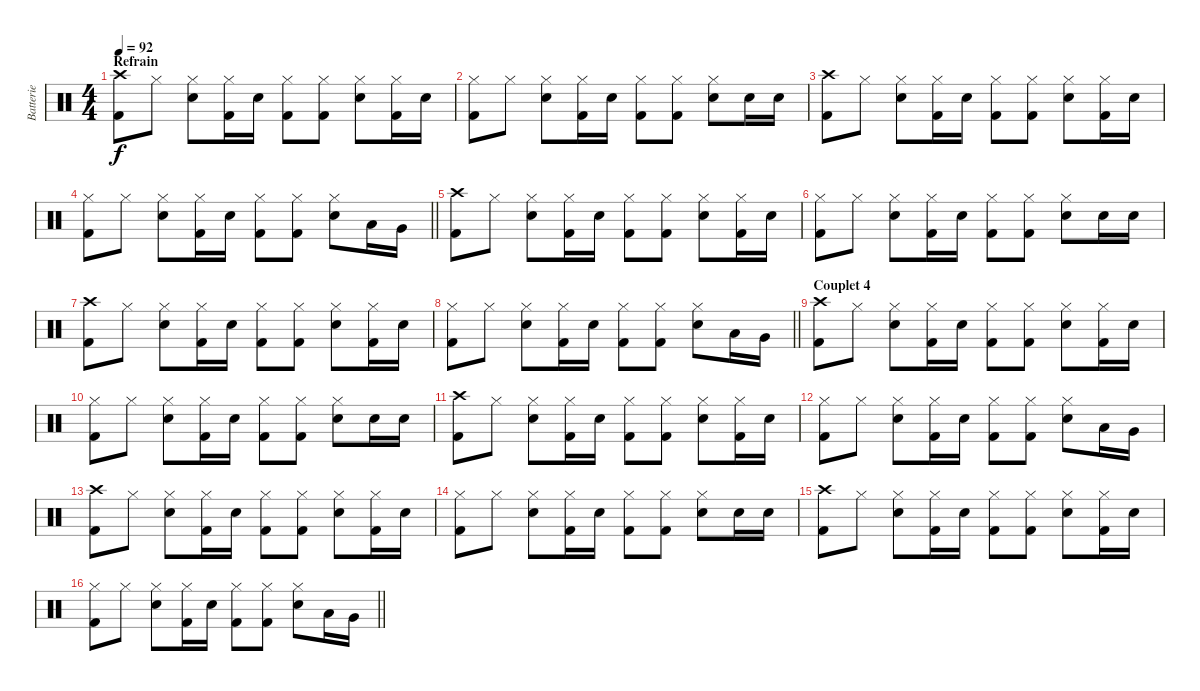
\track ("Batterie" "Batterie") {instrument percussion}
\staff {score}
\articulation defaults
\ts (4 4)
\section ("" "Refrain")
\tempo 92
\clef neutral
\ks c
("Crash high (hit)" "Kick (hit) 2").8{dy f} "Hi-Hat (closed)".8 ("Hi-Hat (closed)" "Electric Snare (hit)").8 ("Hi-Hat (closed)" "Kick (hit) 2").16 "Electric Snare (hit)".16 ("Hi-Hat (closed)" "Kick (hit) 2").8 ("Hi-Hat (closed)" "Kick (hit) 2").8 ("Hi-Hat (closed)" "Electric Snare (hit)").8 ("Hi-Hat (closed)" "Kick (hit) 2").16 "Electric Snare (hit)".16 |
("Hi-Hat (closed)" "Kick (hit) 2").8 "Hi-Hat (closed)".8 ("Hi-Hat (closed)" "Electric Snare (hit)").8 ("Hi-Hat (closed)" "Kick (hit) 2").16 "Electric Snare (hit)".16 ("Hi-Hat (closed)" "Kick (hit) 2").8 ("Hi-Hat (closed)" "Kick (hit) 2").8 ("Hi-Hat (closed)" "Electric Snare (hit)").8 "Electric Snare (hit)".16 "Electric Snare (hit)".16 |
("Crash high (hit)" "Kick (hit) 2").8 "Hi-Hat (closed)".8 ("Hi-Hat (closed)" "Electric Snare (hit)").8 ("Hi-Hat (closed)" "Kick (hit) 2").16 "Electric Snare (hit)".16 ("Hi-Hat (closed)" "Kick (hit) 2").8 ("Hi-Hat (closed)" "Kick (hit) 2").8 ("Hi-Hat (closed)" "Electric Snare (hit)").8 ("Hi-Hat (closed)" "Kick (hit) 2").16 "Electric Snare (hit)".16 |
\barLineRight lightlight
("Hi-Hat (closed)" "Kick (hit) 2").8 "Hi-Hat (closed)".8 ("Hi-Hat (closed)" "Electric Snare (hit)").8 ("Hi-Hat (closed)" "Kick (hit) 2").16 "Electric Snare (hit)".16 ("Hi-Hat (closed)" "Kick (hit) 2").8 ("Hi-Hat (closed)" "Kick (hit) 2").8 ("Hi-Hat (closed)" "Electric Snare (hit)").8 "Low Tom (hit)".16 "Very Low Tom (hit)".16 |
("Crash high (hit)" "Kick (hit) 2").8 "Hi-Hat (closed)".8 ("Hi-Hat (closed)" "Electric Snare (hit)").8 ("Hi-Hat (closed)" "Kick (hit) 2").16 "Electric Snare (hit)".16 ("Hi-Hat (closed)" "Kick (hit) 2").8 ("Hi-Hat (closed)" "Kick (hit) 2").8 ("Hi-Hat (closed)" "Electric Snare (hit)").8 ("Hi-Hat (closed)" "Kick (hit) 2").16 "Electric Snare (hit)".16 |
("Hi-Hat (closed)" "Kick (hit) 2").8 "Hi-Hat (closed)".8 ("Hi-Hat (closed)" "Electric Snare (hit)").8 ("Hi-Hat (closed)" "Kick (hit) 2").16 "Electric Snare (hit)".16 ("Hi-Hat (closed)" "Kick (hit) 2").8 ("Hi-Hat (closed)" "Kick (hit) 2").8 ("Hi-Hat (closed)" "Electric Snare (hit)").8 "Electric Snare (hit)".16 "Electric Snare (hit)".16 |
("Crash high (hit)" "Kick (hit) 2").8 "Hi-Hat (closed)".8 ("Hi-Hat (closed)" "Electric Snare (hit)").8 ("Hi-Hat (closed)" "Kick (hit) 2").16 "Electric Snare (hit)".16 ("Hi-Hat (closed)" "Kick (hit) 2").8 ("Hi-Hat (closed)" "Kick (hit) 2").8 ("Hi-Hat (closed)" "Electric Snare (hit)").8 ("Hi-Hat (closed)" "Kick (hit) 2").16 "Electric Snare (hit)".16 |
\barLineRight lightlight
("Hi-Hat (closed)" "Kick (hit) 2").8 "Hi-Hat (closed)".8 ("Hi-Hat (closed)" "Electric Snare (hit)").8 ("Hi-Hat (closed)" "Kick (hit) 2").16 "Electric Snare (hit)".16 ("Hi-Hat (closed)" "Kick (hit) 2").8 ("Hi-Hat (closed)" "Kick (hit) 2").8 ("Hi-Hat (closed)" "Electric Snare (hit)").8 "Low Tom (hit)".16 "Very Low Tom (hit)".16 |
\section ("" "Couplet 4")
("Crash high (hit)" "Kick (hit) 2").8 "Hi-Hat (closed)".8 ("Hi-Hat (closed)" "Electric Snare (hit)").8 ("Hi-Hat (closed)" "Kick (hit) 2").16 "Electric Snare (hit)".16 ("Hi-Hat (closed)" "Kick (hit) 2").8 ("Hi-Hat (closed)" "Kick (hit) 2").8 ("Hi-Hat (closed)" "Electric Snare (hit)").8 ("Hi-Hat (closed)" "Kick (hit) 2").16 "Electric Snare (hit)".16 |
("Hi-Hat (closed)" "Kick (hit) 2").8 "Hi-Hat (closed)".8 ("Hi-Hat (closed)" "Electric Snare (hit)").8 ("Hi-Hat (closed)" "Kick (hit) 2").16 "Electric Snare (hit)".16 ("Hi-Hat (closed)" "Kick (hit) 2").8 ("Hi-Hat (closed)" "Kick (hit) 2").8 ("Hi-Hat (closed)" "Electric Snare (hit)").8 "Electric Snare (hit)".16 "Electric Snare (hit)".16 |
("Crash high (hit)" "Kick (hit) 2").8 "Hi-Hat (closed)".8 ("Hi-Hat (closed)" "Electric Snare (hit)").8 ("Hi-Hat (closed)" "Kick (hit) 2").16 "Electric Snare (hit)".16 ("Hi-Hat (closed)" "Kick (hit) 2").8 ("Hi-Hat (closed)" "Kick (hit) 2").8 ("Hi-Hat (closed)" "Electric Snare (hit)").8 ("Hi-Hat (closed)" "Kick (hit) 2").16 "Electric Snare (hit)".16 |
("Hi-Hat (closed)" "Kick (hit) 2").8 "Hi-Hat (closed)".8 ("Hi-Hat (closed)" "Electric Snare (hit)").8 ("Hi-Hat (closed)" "Kick (hit) 2").16 "Electric Snare (hit)".16 ("Hi-Hat (closed)" "Kick (hit) 2").8 ("Hi-Hat (closed)" "Kick (hit) 2").8 ("Hi-Hat (closed)" "Electric Snare (hit)").8 "Low Tom (hit)".16 "Very Low Tom (hit)".16 |
("Crash high (hit)" "Kick (hit) 2").8 "Hi-Hat (closed)".8 ("Hi-Hat (closed)" "Electric Snare (hit)").8 ("Hi-Hat (closed)" "Kick (hit) 2").16 "Electric Snare (hit)".16 ("Hi-Hat (closed)" "Kick (hit) 2").8 ("Hi-Hat (closed)" "Kick (hit) 2").8 ("Hi-Hat (closed)" "Electric Snare (hit)").8 ("Hi-Hat (closed)" "Kick (hit) 2").16 "Electric Snare (hit)".16 |
("Hi-Hat (closed)" "Kick (hit) 2").8 "Hi-Hat (closed)".8 ("Hi-Hat (closed)" "Electric Snare (hit)").8 ("Hi-Hat (closed)" "Kick (hit) 2").16 "Electric Snare (hit)".16 ("Hi-Hat (closed)" "Kick (hit) 2").8 ("Hi-Hat (closed)" "Kick (hit) 2").8 ("Hi-Hat (closed)" "Electric Snare (hit)").8 "Electric Snare (hit)".16 "Electric Snare (hit)".16 |
("Crash high (hit)" "Kick (hit) 2").8 "Hi-Hat (closed)".8 ("Hi-Hat (closed)" "Electric Snare (hit)").8 ("Hi-Hat (closed)" "Kick (hit) 2").16 "Electric Snare (hit)".16 ("Hi-Hat (closed)" "Kick (hit) 2").8 ("Hi-Hat (closed)" "Kick (hit) 2").8 ("Hi-Hat (closed)" "Electric Snare (hit)").8 ("Hi-Hat (closed)" "Kick (hit) 2").16 "Electric Snare (hit)".16 |
\barLineRight lightlight
("Hi-Hat (closed)" "Kick (hit) 2").8 "Hi-Hat (closed)".8 ("Hi-Hat (closed)" "Electric Snare (hit)").8 ("Hi-Hat (closed)" "Kick (hit) 2").16 "Electric Snare (hit)".16 ("Hi-Hat (closed)" "Kick (hit) 2").8 ("Hi-Hat (closed)" "Kick (hit) 2").8 ("Hi-Hat (closed)" "Electric Snare (hit)").8 "Low Tom (hit)".16 "Very Low Tom (hit)".16
